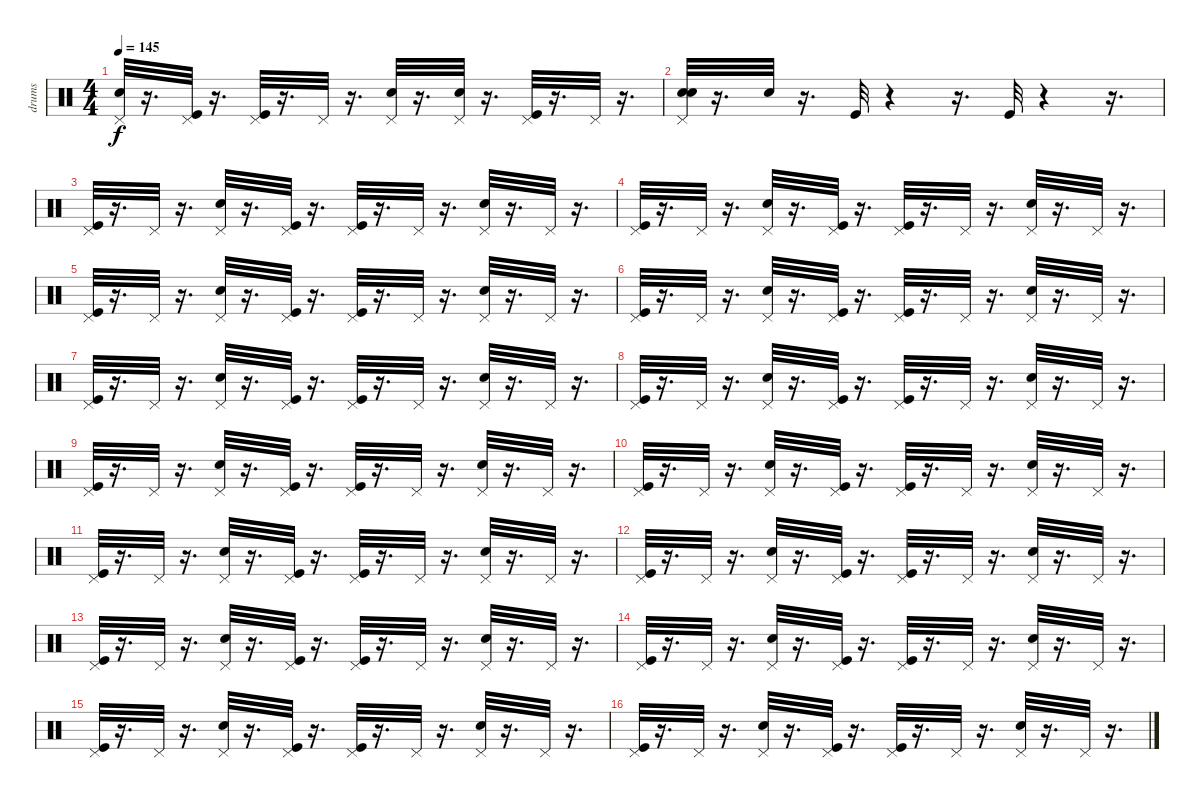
\track ("drums" "drums") {instrument percussion}
\staff {score}
\articulation defaults
\ts (4 4)
\tempo 145
\clef neutral
\ks c
("Pedal Hi-Hat (hit)" "Electric Snare (hit)").32{dy f} r.16{d} ("Pedal Hi-Hat (hit)" "Kick (hit)").32 r.16{d} ("Pedal Hi-Hat (hit)" "Kick (hit)").32 r.16{d} "Pedal Hi-Hat (hit)".32 r.16{d} ("Pedal Hi-Hat (hit)" "Electric Snare (hit)").32 r.16{d} ("Electric Snare (hit)" "Pedal Hi-Hat (hit)").32 r.16{d} ("Pedal Hi-Hat (hit)" "Kick (hit)").32 r.16{d} "Pedal Hi-Hat (hit)".32 r.16{d} |
("Electric Snare (hit)" "Electric Snare (hit)" "Pedal Hi-Hat (hit)").32 r.16{d} "Electric Snare (hit)".32 r.16{d} "Kick (hit)".32 r.4 r.16{d} "Kick (hit)".32 r.4 r.16{d} |
("Pedal Hi-Hat (hit)" "Kick (hit)").32 r.16{d} "Pedal Hi-Hat (hit)".32 r.16{d} ("Pedal Hi-Hat (hit)" "Electric Snare (hit)").32 r.16{d} ("Pedal Hi-Hat (hit)" "Kick (hit)").32 r.16{d} ("Pedal Hi-Hat (hit)" "Kick (hit)").32 r.16{d} "Pedal Hi-Hat (hit)".32 r.16{d} ("Pedal Hi-Hat (hit)" "Electric Snare (hit)").32 r.16{d} "Pedal Hi-Hat (hit)".32 r.16{d} |
("Pedal Hi-Hat (hit)" "Kick (hit)").32 r.16{d} "Pedal Hi-Hat (hit)".32 r.16{d} ("Pedal Hi-Hat (hit)" "Electric Snare (hit)").32 r.16{d} ("Pedal Hi-Hat (hit)" "Kick (hit)").32 r.16{d} ("Pedal Hi-Hat (hit)" "Kick (hit)").32 r.16{d} "Pedal Hi-Hat (hit)".32 r.16{d} ("Pedal Hi-Hat (hit)" "Electric Snare (hit)").32 r.16{d} "Pedal Hi-Hat (hit)".32 r.16{d} |
("Pedal Hi-Hat (hit)" "Kick (hit)").32 r.16{d} "Pedal Hi-Hat (hit)".32 r.16{d} ("Pedal Hi-Hat (hit)" "Electric Snare (hit)").32 r.16{d} ("Pedal Hi-Hat (hit)" "Kick (hit)").32 r.16{d} ("Pedal Hi-Hat (hit)" "Kick (hit)").32 r.16{d} "Pedal Hi-Hat (hit)".32 r.16{d} ("Pedal Hi-Hat (hit)" "Electric Snare (hit)").32 r.16{d} "Pedal Hi-Hat (hit)".32 r.16{d} |
("Pedal Hi-Hat (hit)" "Kick (hit)").32 r.16{d} "Pedal Hi-Hat (hit)".32 r.16{d} ("Pedal Hi-Hat (hit)" "Electric Snare (hit)").32 r.16{d} ("Pedal Hi-Hat (hit)" "Kick (hit)").32 r.16{d} ("Pedal Hi-Hat (hit)" "Kick (hit)").32 r.16{d} "Pedal Hi-Hat (hit)".32 r.16{d} ("Pedal Hi-Hat (hit)" "Electric Snare (hit)").32 r.16{d} "Pedal Hi-Hat (hit)".32 r.16{d} |
("Pedal Hi-Hat (hit)" "Kick (hit)").32 r.16{d} "Pedal Hi-Hat (hit)".32 r.16{d} ("Pedal Hi-Hat (hit)" "Electric Snare (hit)").32 r.16{d} ("Pedal Hi-Hat (hit)" "Kick (hit)").32 r.16{d} ("Pedal Hi-Hat (hit)" "Kick (hit)").32 r.16{d} "Pedal Hi-Hat (hit)".32 r.16{d} ("Pedal Hi-Hat (hit)" "Electric Snare (hit)").32 r.16{d} "Pedal Hi-Hat (hit)".32 r.16{d} |
("Pedal Hi-Hat (hit)" "Kick (hit)").32 r.16{d} "Pedal Hi-Hat (hit)".32 r.16{d} ("Pedal Hi-Hat (hit)" "Electric Snare (hit)").32 r.16{d} ("Pedal Hi-Hat (hit)" "Kick (hit)").32 r.16{d} ("Pedal Hi-Hat (hit)" "Kick (hit)").32 r.16{d} "Pedal Hi-Hat (hit)".32 r.16{d} ("Pedal Hi-Hat (hit)" "Electric Snare (hit)").32 r.16{d} "Pedal Hi-Hat (hit)".32 r.16{d} |
("Pedal Hi-Hat (hit)" "Kick (hit)").32 r.16{d} "Pedal Hi-Hat (hit)".32 r.16{d} ("Pedal Hi-Hat (hit)" "Electric Snare (hit)").32 r.16{d} ("Pedal Hi-Hat (hit)" "Kick (hit)").32 r.16{d} ("Pedal Hi-Hat (hit)" "Kick (hit)").32 r.16{d} "Pedal Hi-Hat (hit)".32 r.16{d} ("Pedal Hi-Hat (hit)" "Electric Snare (hit)").32 r.16{d} "Pedal Hi-Hat (hit)".32 r.16{d} |
("Pedal Hi-Hat (hit)" "Kick (hit)").32 r.16{d} "Pedal Hi-Hat (hit)".32 r.16{d} ("Pedal Hi-Hat (hit)" "Electric Snare (hit)").32 r.16{d} ("Pedal Hi-Hat (hit)" "Kick (hit)").32 r.16{d} ("Pedal Hi-Hat (hit)" "Kick (hit)").32 r.16{d} "Pedal Hi-Hat (hit)".32 r.16{d} ("Pedal Hi-Hat (hit)" "Electric Snare (hit)").32 r.16{d} "Pedal Hi-Hat (hit)".32 r.16{d} |
("Pedal Hi-Hat (hit)" "Kick (hit)").32 r.16{d} "Pedal Hi-Hat (hit)".32 r.16{d} ("Pedal Hi-Hat (hit)" "Electric Snare (hit)").32 r.16{d} ("Pedal Hi-Hat (hit)" "Kick (hit)").32 r.16{d} ("Pedal Hi-Hat (hit)" "Kick (hit)").32 r.16{d} "Pedal Hi-Hat (hit)".32 r.16{d} ("Pedal Hi-Hat (hit)" "Electric Snare (hit)").32 r.16{d} "Pedal Hi-Hat (hit)".32 r.16{d} |
("Pedal Hi-Hat (hit)" "Kick (hit)").32 r.16{d} "Pedal Hi-Hat (hit)".32 r.16{d} ("Pedal Hi-Hat (hit)" "Electric Snare (hit)").32 r.16{d} ("Pedal Hi-Hat (hit)" "Kick (hit)").32 r.16{d} ("Pedal Hi-Hat (hit)" "Kick (hit)").32 r.16{d} "Pedal Hi-Hat (hit)".32 r.16{d} ("Pedal Hi-Hat (hit)" "Electric Snare (hit)").32 r.16{d} "Pedal Hi-Hat (hit)".32 r.16{d} |
("Pedal Hi-Hat (hit)" "Kick (hit)").32 r.16{d} "Pedal Hi-Hat (hit)".32 r.16{d} ("Pedal Hi-Hat (hit)" "Electric Snare (hit)").32 r.16{d} ("Pedal Hi-Hat (hit)" "Kick (hit)").32 r.16{d} ("Pedal Hi-Hat (hit)" "Kick (hit)").32 r.16{d} "Pedal Hi-Hat (hit)".32 r.16{d} ("Pedal Hi-Hat (hit)" "Electric Snare (hit)").32 r.16{d} "Pedal Hi-Hat (hit)".32 r.16{d} |
("Pedal Hi-Hat (hit)" "Kick (hit)").32 r.16{d} "Pedal Hi-Hat (hit)".32 r.16{d} ("Pedal Hi-Hat (hit)" "Electric Snare (hit)").32 r.16{d} ("Pedal Hi-Hat (hit)" "Kick (hit)").32 r.16{d} ("Pedal Hi-Hat (hit)" "Kick (hit)").32 r.16{d} "Pedal Hi-Hat (hit)".32 r.16{d} ("Pedal Hi-Hat (hit)" "Electric Snare (hit)").32 r.16{d} "Pedal Hi-Hat (hit)".32 r.16{d} |
("Pedal Hi-Hat (hit)" "Kick (hit)").32 r.16{d} "Pedal Hi-Hat (hit)".32 r.16{d} ("Pedal Hi-Hat (hit)" "Electric Snare (hit)").32 r.16{d} ("Pedal Hi-Hat (hit)" "Kick (hit)").32 r.16{d} ("Pedal Hi-Hat (hit)" "Kick (hit)").32 r.16{d} "Pedal Hi-Hat (hit)".32 r.16{d} ("Pedal Hi-Hat (hit)" "Electric Snare (hit)").32 r.16{d} "Pedal Hi-Hat (hit)".32 r.16{d} |
("Pedal Hi-Hat (hit)" "Kick (hit)").32 r.16{d} "Pedal Hi-Hat (hit)".32 r.16{d} ("Pedal Hi-Hat (hit)" "Electric Snare (hit)").32 r.16{d} ("Pedal Hi-Hat (hit)" "Kick (hit)").32 r.16{d} ("Pedal Hi-Hat (hit)" "Kick (hit)").32 r.16{d} "Pedal Hi-Hat (hit)".32 r.16{d} ("Pedal Hi-Hat (hit)" "Electric Snare (hit)").32 r.16{d} "Pedal Hi-Hat (hit)".32 r.16{d}
